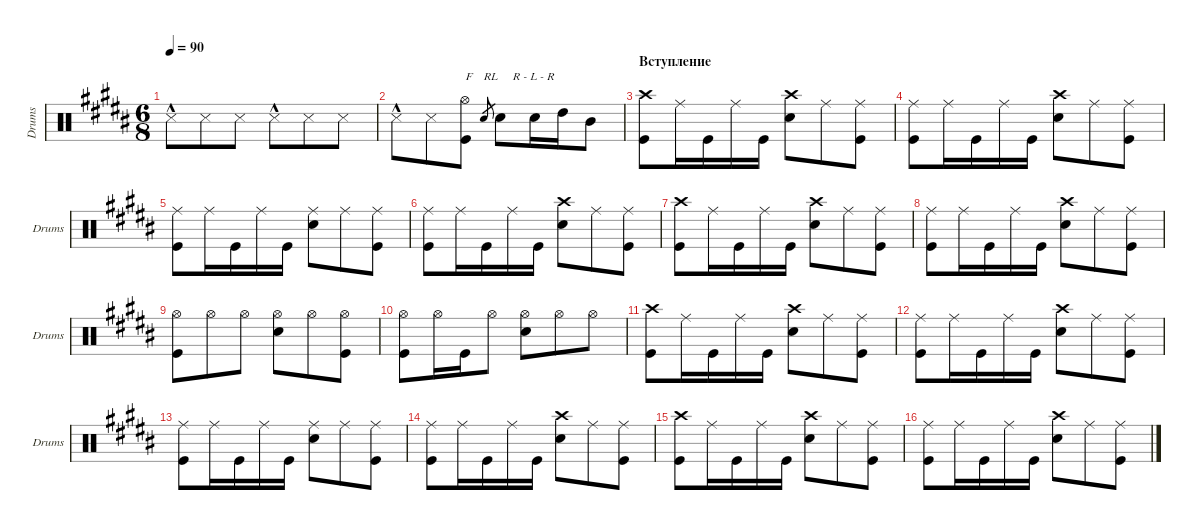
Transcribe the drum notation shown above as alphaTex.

\defaultSystemsLayout 4
\hideDynamics
\bracketExtendMode groupsimilarinstruments
\singleTrackTrackNamePolicy allsystems
\multiTrackTrackNamePolicy allsystems
\otherSystemsTrackNameOrientation horizontal
\track ("Drum" "Drums") {instrument percussion}
\staff {score}
\articulation defaults
\ts (6 8)
\tempo 90
\clef neutral
\ks b "Snare (side stick) 3"{hac}.8{dy mp} "Snare (side stick) 3".8 "Snare (side stick) 3".8 "Snare (side stick) 3"{hac}.8 "Snare (side stick) 3".8 "Snare (side stick) 3".8
|
"Snare (side stick) 3"{hac}.8 "Snare (side stick) 3".8 ("Kick (hit)" "Hi-Hat (open)").8{txt "F" dy mf} "Snare (hit) 2".8{txt "RL     R - L - R" gr} "Snare (hit) 2".8 "Snare (hit) 2".16 "High Tom (hit)".16 "Mid Tom (hit)".8 |
\section ("" "Вступление")
("Crash high (hit)" "Kick (hit)").8 "Ride (middle)".16 "Kick (hit)".16 "Ride (middle)".16 "Kick (hit)".16 ("Crash high (hit)" "Snare (hit) 2").8 "Ride (middle)".8 ("Ride (middle)" "Kick (hit)").8 |
("Kick (hit)" "Ride (middle)").8 "Ride (middle)".16 "Kick (hit)".16 "Ride (middle)".16 "Kick (hit)".16 ("Crash high (hit)" "Snare (hit) 2").8 "Ride (middle)".8 ("Ride (middle)" "Kick (hit)").8 |
("Kick (hit)" "Ride (middle)").8 "Ride (middle)".16 "Kick (hit)".16 "Ride (middle)".16 "Kick (hit)".16 ("Snare (hit) 2" "Ride (middle)").8 "Ride (middle)".8 ("Ride (middle)" "Kick (hit)").8 |
("Kick (hit)" "Ride (middle)").8 "Ride (middle)".16 "Kick (hit)".16 "Ride (middle)".16 "Kick (hit)".16 ("Crash high (hit)" "Snare (hit) 2").8 "Ride (middle)".8 ("Ride (middle)" "Kick (hit)").8 |
("Crash high (hit)" "Kick (hit)").8 "Ride (middle)".16 "Kick (hit)".16 "Ride (middle)".16 "Kick (hit)".16 ("Crash high (hit)" "Snare (hit) 2").8 "Ride (middle)".8 ("Ride (middle)" "Kick (hit)").8 |
\scale
0.200767 ("Kick (hit)" "Ride (middle)").8 "Ride (middle)".16 "Kick (hit)".16 "Ride (middle)".16 "Kick (hit)".16 ("Crash high (hit)" "Snare (hit) 2").8 "Ride (middle)".8 ("Ride (middle)" "Kick (hit)").8 |
\scale
0.120408 ("Kick (hit)" "Hi-Hat (open)").8 "Hi-Hat (open)".8 "Hi-Hat (open)".8 ("Hi-Hat (open)" "Snare (hit) 2").8 "Hi-Hat (open)".8 ("Hi-Hat (open)" "Kick (hit)").8 |
\scale
0.111028 ("Kick (hit)" "Hi-Hat (open)").8 "Hi-Hat (open)".16 "Kick (hit)".16 "Hi-Hat (open)".8 ("Hi-Hat (open)" "Snare (hit) 2").8 "Hi-Hat (open)".8 "Hi-Hat (open)".8 |
\scale
0.139386 ("Crash high (hit)" "Kick (hit)").8 "Ride (middle)".16 "Kick (hit)".16 "Ride (middle)".16 "Kick (hit)".16 ("Crash high (hit)" "Snare (hit) 2").8 "Ride (middle)".8 ("Ride (middle)" "Kick (hit)").8 |
\scale
0.139386 ("Kick (hit)" "Ride (middle)").8 "Ride (middle)".16 "Kick (hit)".16 "Ride (middle)".16 "Kick (hit)".16 ("Crash high (hit)" "Snare (hit) 2").8 "Ride (middle)".8 ("Ride (middle)" "Kick (hit)").8 |
\scale
0.149616 ("Kick (hit)" "Ride (middle)").8 "Ride (middle)".16 "Kick (hit)".16 "Ride (middle)".16 "Kick (hit)".16 ("Snare (hit) 2" "Ride (middle)").8 "Ride (middle)".8 ("Ride (middle)" "Kick (hit)").8 |
\scale
0.139386 ("Kick (hit)" "Ride (middle)").8 "Ride (middle)".16 "Kick (hit)".16 "Ride (middle)".16 "Kick (hit)".16 ("Crash high (hit)" "Snare (hit) 2").8 "Ride (middle)".8 ("Ride (middle)" "Kick (hit)").8 |
\scale
0.220833 ("Crash high (hit)" "Kick (hit)").8 "Ride (middle)".16 "Kick (hit)".16 "Ride (middle)".16 "Kick (hit)".16 ("Crash high (hit)" "Snare (hit) 2").8 "Ride (middle)".8 ("Ride (middle)" "Kick (hit)").8 |
\scale
0.148785 ("Kick (hit)" "Ride (middle)").8 "Ride (middle)".16 "Kick (hit)".16 "Ride (middle)".16 "Kick (hit)".16 ("Crash high (hit)" "Snare (hit) 2").8 "Ride (middle)".8 ("Ride (middle)" "Kick (hit)").8
